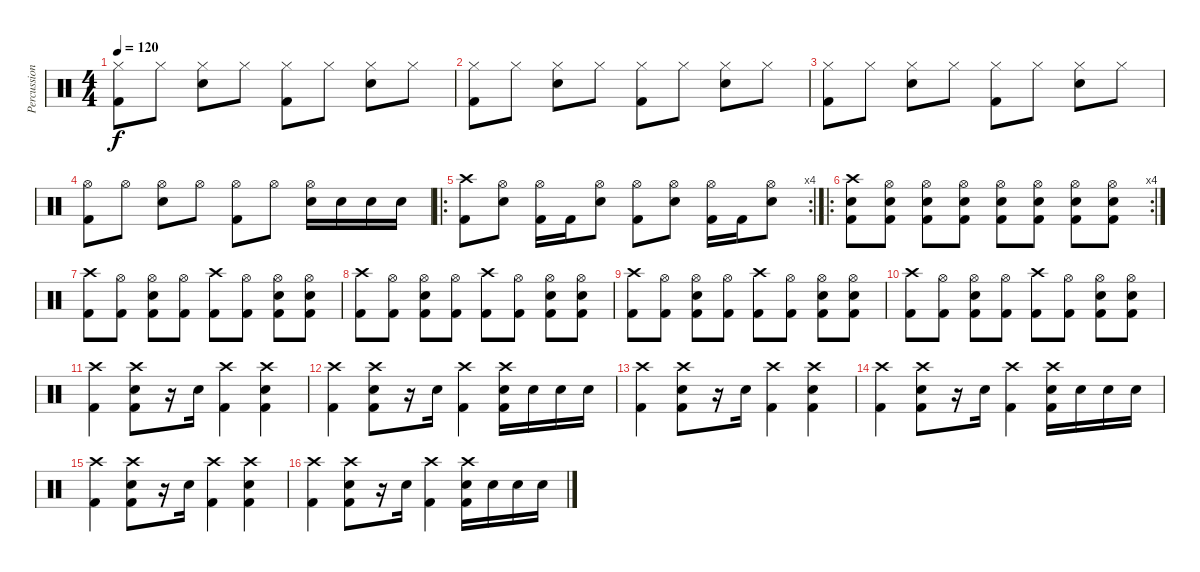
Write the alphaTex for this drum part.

\track ("Percussion" "Percussion") {instrument percussion}
\staff {score}
\articulation defaults
\ts (4 4)
\tempo 120
\clef neutral
\ks c
("Hi-Hat (closed)" "Kick (hit) 2").8{dy f} "Hi-Hat (closed)".8 ("Hi-Hat (closed)" "Electric Snare (hit)").8 "Hi-Hat (closed)".8 ("Hi-Hat (closed)" "Kick (hit) 2").8 "Hi-Hat (closed)".8 ("Hi-Hat (closed)" "Electric Snare (hit)").8 "Hi-Hat (closed)".8 |
("Hi-Hat (closed)" "Kick (hit) 2").8 "Hi-Hat (closed)".8 ("Hi-Hat (closed)" "Electric Snare (hit)").8 "Hi-Hat (closed)".8 ("Hi-Hat (closed)" "Kick (hit) 2").8 "Hi-Hat (closed)".8 ("Hi-Hat (closed)" "Electric Snare (hit)").8 "Hi-Hat (closed)".8 |
("Hi-Hat (closed)" "Kick (hit) 2").8 "Hi-Hat (closed)".8 ("Hi-Hat (closed)" "Electric Snare (hit)").8 "Hi-Hat (closed)".8 ("Hi-Hat (closed)" "Kick (hit) 2").8 "Hi-Hat (closed)".8 ("Hi-Hat (closed)" "Electric Snare (hit)").8 "Hi-Hat (closed)".8 |
("Hi-Hat (open)" "Kick (hit) 2").8 "Hi-Hat (open)".8 ("Hi-Hat (open)" "Electric Snare (hit)").8 "Hi-Hat (open)".8 ("Hi-Hat (open)" "Kick (hit) 2").8 "Hi-Hat (open)".8 ("Hi-Hat (open)" "Electric Snare (hit)").16 "Electric Snare (hit)".16 "Electric Snare (hit)".16 "Electric Snare (hit)".16 |
\ro
\rc 4
("Crash high (hit)" "Kick (hit) 2").8 ("Hi-Hat (open)" "Electric Snare (hit)").8 ("Hi-Hat (open)" "Kick (hit) 2").16 "Kick (hit) 2".16 ("Hi-Hat (open)" "Electric Snare (hit)").8 ("Hi-Hat (open)" "Kick (hit) 2").8 ("Hi-Hat (open)" "Electric Snare (hit)").8 ("Hi-Hat (open)" "Kick (hit) 2").16 "Kick (hit) 2".16 ("Hi-Hat (open)" "Electric Snare (hit)").8 |
\ro
\rc 4
("Crash high (hit)" "Electric Snare (hit)" "Kick (hit) 2").8 ("Hi-Hat (open)" "Electric Snare (hit)" "Kick (hit) 2").8 ("Hi-Hat (open)" "Electric Snare (hit)" "Kick (hit) 2").8 ("Hi-Hat (open)" "Electric Snare (hit)" "Kick (hit) 2").8 ("Hi-Hat (open)" "Electric Snare (hit)" "Kick (hit) 2").8 ("Hi-Hat (open)" "Electric Snare (hit)" "Kick (hit) 2").8 ("Hi-Hat (open)" "Electric Snare (hit)" "Kick (hit) 2").8 ("Hi-Hat (open)" "Electric Snare (hit)" "Kick (hit) 2").8 |
("Crash high (hit)" "Kick (hit) 2").8 ("Hi-Hat (open)" "Kick (hit) 2").8 ("Hi-Hat (open)" "Electric Snare (hit)" "Kick (hit) 2").8 ("Hi-Hat (open)" "Kick (hit) 2").8 ("Crash high (hit)" "Kick (hit) 2").8 ("Hi-Hat (open)" "Kick (hit) 2").8 ("Hi-Hat (open)" "Electric Snare (hit)" "Kick (hit) 2").8 ("Hi-Hat (open)" "Electric Snare (hit)" "Kick (hit) 2").8 |
("Crash high (hit)" "Kick (hit) 2").8 ("Hi-Hat (open)" "Kick (hit) 2").8 ("Hi-Hat (open)" "Electric Snare (hit)" "Kick (hit) 2").8 ("Hi-Hat (open)" "Kick (hit) 2").8 ("Crash high (hit)" "Kick (hit) 2").8 ("Hi-Hat (open)" "Kick (hit) 2").8 ("Hi-Hat (open)" "Electric Snare (hit)" "Kick (hit) 2").8 ("Hi-Hat (open)" "Electric Snare (hit)" "Kick (hit) 2").8 |
("Crash high (hit)" "Kick (hit) 2").8 ("Hi-Hat (open)" "Kick (hit) 2").8 ("Hi-Hat (open)" "Electric Snare (hit)" "Kick (hit) 2").8 ("Hi-Hat (open)" "Kick (hit) 2").8 ("Crash high (hit)" "Kick (hit) 2").8 ("Hi-Hat (open)" "Kick (hit) 2").8 ("Hi-Hat (open)" "Electric Snare (hit)" "Kick (hit) 2").8 ("Hi-Hat (open)" "Electric Snare (hit)" "Kick (hit) 2").8 |
("Crash high (hit)" "Kick (hit) 2").8 ("Hi-Hat (open)" "Kick (hit) 2").8 ("Hi-Hat (open)" "Electric Snare (hit)" "Kick (hit) 2").8 ("Hi-Hat (open)" "Kick (hit) 2").8 ("Crash high (hit)" "Kick (hit) 2").8 ("Hi-Hat (open)" "Kick (hit) 2").8 ("Hi-Hat (open)" "Electric Snare (hit)" "Kick (hit) 2").8 ("Hi-Hat (open)" "Electric Snare (hit)" "Kick (hit) 2").8 |
("Crash high (hit)" "Kick (hit) 2").4 ("Crash high (hit)" "Electric Snare (hit)" "Kick (hit) 2").8 r.16 "Electric Snare (hit)".16 ("Crash high (hit)" "Kick (hit) 2").4 ("Crash high (hit)" "Electric Snare (hit)" "Kick (hit) 2").4 |
("Crash high (hit)" "Kick (hit) 2").4 ("Crash high (hit)" "Electric Snare (hit)" "Kick (hit) 2").8 r.16 "Electric Snare (hit)".16 ("Crash high (hit)" "Kick (hit) 2").4 ("Crash high (hit)" "Electric Snare (hit)" "Kick (hit) 2").16 "Electric Snare (hit)".16 "Electric Snare (hit)".16 "Electric Snare (hit)".16 |
("Crash high (hit)" "Kick (hit) 2").4 ("Crash high (hit)" "Electric Snare (hit)" "Kick (hit) 2").8 r.16 "Electric Snare (hit)".16 ("Crash high (hit)" "Kick (hit) 2").4 ("Crash high (hit)" "Electric Snare (hit)" "Kick (hit) 2").4 |
("Crash high (hit)" "Kick (hit) 2").4 ("Crash high (hit)" "Electric Snare (hit)" "Kick (hit) 2").8 r.16 "Electric Snare (hit)".16 ("Crash high (hit)" "Kick (hit) 2").4 ("Crash high (hit)" "Electric Snare (hit)" "Kick (hit) 2").16 "Electric Snare (hit)".16 "Electric Snare (hit)".16 "Electric Snare (hit)".16 |
("Crash high (hit)" "Kick (hit) 2").4 ("Crash high (hit)" "Electric Snare (hit)" "Kick (hit) 2").8 r.16 "Electric Snare (hit)".16 ("Crash high (hit)" "Kick (hit) 2").4 ("Crash high (hit)" "Electric Snare (hit)" "Kick (hit) 2").4 |
("Crash high (hit)" "Kick (hit) 2").4 ("Crash high (hit)" "Electric Snare (hit)" "Kick (hit) 2").8 r.16 "Electric Snare (hit)".16 ("Crash high (hit)" "Kick (hit) 2").4 ("Crash high (hit)" "Electric Snare (hit)" "Kick (hit) 2").16 "Electric Snare (hit)".16 "Electric Snare (hit)".16 "Electric Snare (hit)".16
